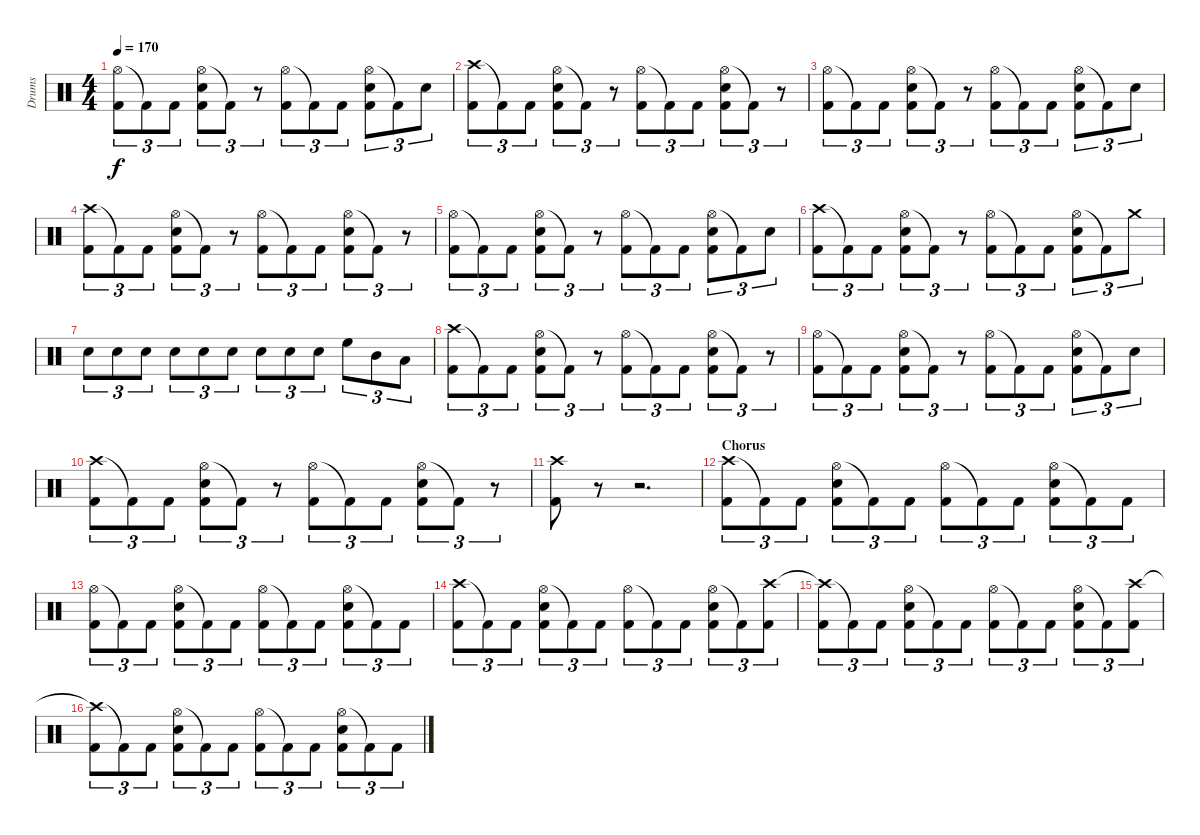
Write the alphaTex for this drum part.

\track ("Drums" "Drums") {instrument percussion}
\staff {score}
\articulation defaults
\ts (4 4)
\tempo 170
\clef neutral
\ks c
("Hi-Hat (open)" "Kick (hit) 2").8{tu (3 2) dy f} "Kick (hit) 2"{t}.8{tu (3 2)} "Kick (hit) 2".8{tu (3 2)} ("Hi-Hat (open)" "Snare (hit) 2" "Kick (hit) 2").8{tu (3 2)} "Kick (hit) 2"{t}.8{tu (3 2)} r.8{tu (3 2)} ("Hi-Hat (open)" "Kick (hit) 2").8{tu (3 2)} "Kick (hit) 2"{t}.8{tu (3 2)} "Kick (hit) 2".8{tu (3 2)} ("Hi-Hat (open)" "Snare (hit) 2" "Kick (hit) 2").8{tu (3 2)} "Kick (hit) 2"{t}.8{tu (3 2)} "Snare (hit) 2".8{tu (3 2)} |
("Crash high (hit)" "Kick (hit) 2").8{tu (3 2)} "Kick (hit) 2"{t}.8{tu (3 2)} "Kick (hit) 2".8{tu (3 2)} ("Hi-Hat (open)" "Snare (hit) 2" "Kick (hit) 2").8{tu (3 2)} "Kick (hit) 2"{t}.8{tu (3 2)} r.8{tu (3 2)} ("Hi-Hat (open)" "Kick (hit) 2").8{tu (3 2)} "Kick (hit) 2"{t}.8{tu (3 2)} "Kick (hit) 2".8{tu (3 2)} ("Hi-Hat (open)" "Snare (hit) 2" "Kick (hit) 2").8{tu (3 2)} "Kick (hit) 2"{t}.8{tu (3 2)} r.8{tu (3 2)} |
("Hi-Hat (open)" "Kick (hit) 2").8{tu (3 2)} "Kick (hit) 2"{t}.8{tu (3 2)} "Kick (hit) 2".8{tu (3 2)} ("Hi-Hat (open)" "Snare (hit) 2" "Kick (hit) 2").8{tu (3 2)} "Kick (hit) 2"{t}.8{tu (3 2)} r.8{tu (3 2)} ("Hi-Hat (open)" "Kick (hit) 2").8{tu (3 2)} "Kick (hit) 2"{t}.8{tu (3 2)} "Kick (hit) 2".8{tu (3 2)} ("Hi-Hat (open)" "Snare (hit) 2" "Kick (hit) 2").8{tu (3 2)} "Kick (hit) 2"{t}.8{tu (3 2)} "Snare (hit) 2".8{tu (3 2)} |
("Crash high (hit)" "Kick (hit) 2").8{tu (3 2)} "Kick (hit) 2"{t}.8{tu (3 2)} "Kick (hit) 2".8{tu (3 2)} ("Hi-Hat (open)" "Snare (hit) 2" "Kick (hit) 2").8{tu (3 2)} "Kick (hit) 2"{t}.8{tu (3 2)} r.8{tu (3 2)} ("Hi-Hat (open)" "Kick (hit) 2").8{tu (3 2)} "Kick (hit) 2"{t}.8{tu (3 2)} "Kick (hit) 2".8{tu (3 2)} ("Hi-Hat (open)" "Snare (hit) 2" "Kick (hit) 2").8{tu (3 2)} "Kick (hit) 2"{t}.8{tu (3 2)} r.8{tu (3 2)} |
("Hi-Hat (open)" "Kick (hit) 2").8{tu (3 2)} "Kick (hit) 2"{t}.8{tu (3 2)} "Kick (hit) 2".8{tu (3 2)} ("Hi-Hat (open)" "Snare (hit) 2" "Kick (hit) 2").8{tu (3 2)} "Kick (hit) 2"{t}.8{tu (3 2)} r.8{tu (3 2)} ("Hi-Hat (open)" "Kick (hit) 2").8{tu (3 2)} "Kick (hit) 2"{t}.8{tu (3 2)} "Kick (hit) 2".8{tu (3 2)} ("Hi-Hat (open)" "Snare (hit) 2" "Kick (hit) 2").8{tu (3 2)} "Kick (hit) 2"{t}.8{tu (3 2)} "Snare (hit) 2".8{tu (3 2)} |
("Crash high (hit)" "Kick (hit) 2").8{tu (3 2)} "Kick (hit) 2"{t}.8{tu (3 2)} "Kick (hit) 2".8{tu (3 2)} ("Hi-Hat (open)" "Snare (hit) 2" "Kick (hit) 2").8{tu (3 2)} "Kick (hit) 2"{t}.8{tu (3 2)} r.8{tu (3 2)} ("Hi-Hat (open)" "Kick (hit) 2").8{tu (3 2)} "Kick (hit) 2"{t}.8{tu (3 2)} "Kick (hit) 2".8{tu (3 2)} ("Hi-Hat (open)" "Snare (hit) 2" "Kick (hit) 2").8{tu (3 2)} "Kick (hit) 2"{t}.8{tu (3 2)} "Crash medium (hit)".8{tu (3 2)} |
"Snare (hit) 2".8{tu (3 2)} "Snare (hit) 2".8{tu (3 2)} "Snare (hit) 2".8{tu (3 2)} "Snare (hit) 2".8{tu (3 2)} "Snare (hit) 2".8{tu (3 2)} "Snare (hit) 2".8{tu (3 2)} "Snare (hit) 2".8{tu (3 2)} "Snare (hit) 2".8{tu (3 2)} "Snare (hit) 2".8{tu (3 2)} "High Floor Tom (hit)".8{tu (3 2)} "Mid Tom (hit)".8{tu (3 2)} "Low Tom (hit)".8{tu (3 2)} |
("Crash high (hit)" "Kick (hit) 2").8{tu (3 2)} "Kick (hit) 2"{t}.8{tu (3 2)} "Kick (hit) 2".8{tu (3 2)} ("Hi-Hat (open)" "Snare (hit) 2" "Kick (hit) 2").8{tu (3 2)} "Kick (hit) 2"{t}.8{tu (3 2)} r.8{tu (3 2)} ("Hi-Hat (open)" "Kick (hit) 2").8{tu (3 2)} "Kick (hit) 2"{t}.8{tu (3 2)} "Kick (hit) 2".8{tu (3 2)} ("Hi-Hat (open)" "Snare (hit) 2" "Kick (hit) 2").8{tu (3 2)} "Kick (hit) 2"{t}.8{tu (3 2)} r.8{tu (3 2)} |
("Hi-Hat (open)" "Kick (hit) 2").8{tu (3 2)} "Kick (hit) 2"{t}.8{tu (3 2)} "Kick (hit) 2".8{tu (3 2)} ("Hi-Hat (open)" "Snare (hit) 2" "Kick (hit) 2").8{tu (3 2)} "Kick (hit) 2"{t}.8{tu (3 2)} r.8{tu (3 2)} ("Hi-Hat (open)" "Kick (hit) 2").8{tu (3 2)} "Kick (hit) 2"{t}.8{tu (3 2)} "Kick (hit) 2".8{tu (3 2)} ("Hi-Hat (open)" "Snare (hit) 2" "Kick (hit) 2").8{tu (3 2)} "Kick (hit) 2"{t}.8{tu (3 2)} "Snare (hit) 2".8{tu (3 2)} |
("Crash high (hit)" "Kick (hit) 2").8{tu (3 2)} "Kick (hit) 2"{t}.8{tu (3 2)} "Kick (hit) 2".8{tu (3 2)} ("Hi-Hat (open)" "Snare (hit) 2" "Kick (hit) 2").8{tu (3 2)} "Kick (hit) 2"{t}.8{tu (3 2)} r.8{tu (3 2)} ("Hi-Hat (open)" "Kick (hit) 2").8{tu (3 2)} "Kick (hit) 2"{t}.8{tu (3 2)} "Kick (hit) 2".8{tu (3 2)} ("Hi-Hat (open)" "Snare (hit) 2" "Kick (hit) 2").8{tu (3 2)} "Kick (hit) 2"{t}.8{tu (3 2)} r.8{tu (3 2)} |
("Crash high (hit)" "Kick (hit) 2").8 r.8 r.2{d} |
\section ("" "Chorus")
("Crash high (hit)" "Kick (hit) 2").8{tu (3 2)} "Kick (hit) 2"{t}.8{tu (3 2)} "Kick (hit) 2".8{tu (3 2)} ("Hi-Hat (open)" "Snare (hit) 2" "Kick (hit) 2").8{tu (3 2)} "Kick (hit) 2"{t}.8{tu (3 2)} "Kick (hit) 2".8{tu (3 2)} ("Hi-Hat (open)" "Kick (hit) 2").8{tu (3 2)} "Kick (hit) 2"{t}.8{tu (3 2)} "Kick (hit) 2".8{tu (3 2)} ("Hi-Hat (open)" "Snare (hit) 2" "Kick (hit) 2").8{tu (3 2)} "Kick (hit) 2"{t}.8{tu (3 2)} "Kick (hit) 2".8{tu (3 2)} |
("Hi-Hat (open)" "Kick (hit) 2").8{tu (3 2)} "Kick (hit) 2"{t}.8{tu (3 2)} "Kick (hit) 2".8{tu (3 2)} ("Hi-Hat (open)" "Snare (hit) 2" "Kick (hit) 2").8{tu (3 2)} "Kick (hit) 2"{t}.8{tu (3 2)} "Kick (hit) 2".8{tu (3 2)} ("Hi-Hat (open)" "Kick (hit) 2").8{tu (3 2)} "Kick (hit) 2"{t}.8{tu (3 2)} "Kick (hit) 2".8{tu (3 2)} ("Hi-Hat (open)" "Snare (hit) 2" "Kick (hit) 2").8{tu (3 2)} "Kick (hit) 2"{t}.8{tu (3 2)} "Kick (hit) 2".8{tu (3 2)} |
("Crash high (hit)" "Kick (hit) 2").8{tu (3 2)} "Kick (hit) 2"{t}.8{tu (3 2)} "Kick (hit) 2".8{tu (3 2)} ("Hi-Hat (open)" "Snare (hit) 2" "Kick (hit) 2").8{tu (3 2)} "Kick (hit) 2"{t}.8{tu (3 2)} "Kick (hit) 2".8{tu (3 2)} ("Hi-Hat (open)" "Kick (hit) 2").8{tu (3 2)} "Kick (hit) 2"{t}.8{tu (3 2)} "Kick (hit) 2".8{tu (3 2)} ("Hi-Hat (open)" "Snare (hit) 2" "Kick (hit) 2").8{tu (3 2)} "Kick (hit) 2"{t}.8{tu (3 2)} ("Crash high (hit)" "Kick (hit) 2").8{tu (3 2)} |
("Crash high (hit)"{t} "Kick (hit) 2").8{tu (3 2)} "Kick (hit) 2"{t}.8{tu (3 2)} "Kick (hit) 2".8{tu (3 2)} ("Hi-Hat (open)" "Snare (hit) 2" "Kick (hit) 2").8{tu (3 2)} "Kick (hit) 2"{t}.8{tu (3 2)} "Kick (hit) 2".8{tu (3 2)} ("Hi-Hat (open)" "Kick (hit) 2").8{tu (3 2)} "Kick (hit) 2"{t}.8{tu (3 2)} "Kick (hit) 2".8{tu (3 2)} ("Hi-Hat (open)" "Snare (hit) 2" "Kick (hit) 2").8{tu (3 2)} "Kick (hit) 2"{t}.8{tu (3 2)} ("Crash high (hit)" "Kick (hit) 2").8{tu (3 2)} |
("Crash high (hit)"{t} "Kick (hit) 2").8{tu (3 2)} "Kick (hit) 2"{t}.8{tu (3 2)} "Kick (hit) 2".8{tu (3 2)} ("Hi-Hat (open)" "Snare (hit) 2" "Kick (hit) 2").8{tu (3 2)} "Kick (hit) 2"{t}.8{tu (3 2)} "Kick (hit) 2".8{tu (3 2)} ("Hi-Hat (open)" "Kick (hit) 2").8{tu (3 2)} "Kick (hit) 2"{t}.8{tu (3 2)} "Kick (hit) 2".8{tu (3 2)} ("Hi-Hat (open)" "Snare (hit) 2" "Kick (hit) 2").8{tu (3 2)} "Kick (hit) 2"{t}.8{tu (3 2)} "Kick (hit) 2".8{tu (3 2)}
